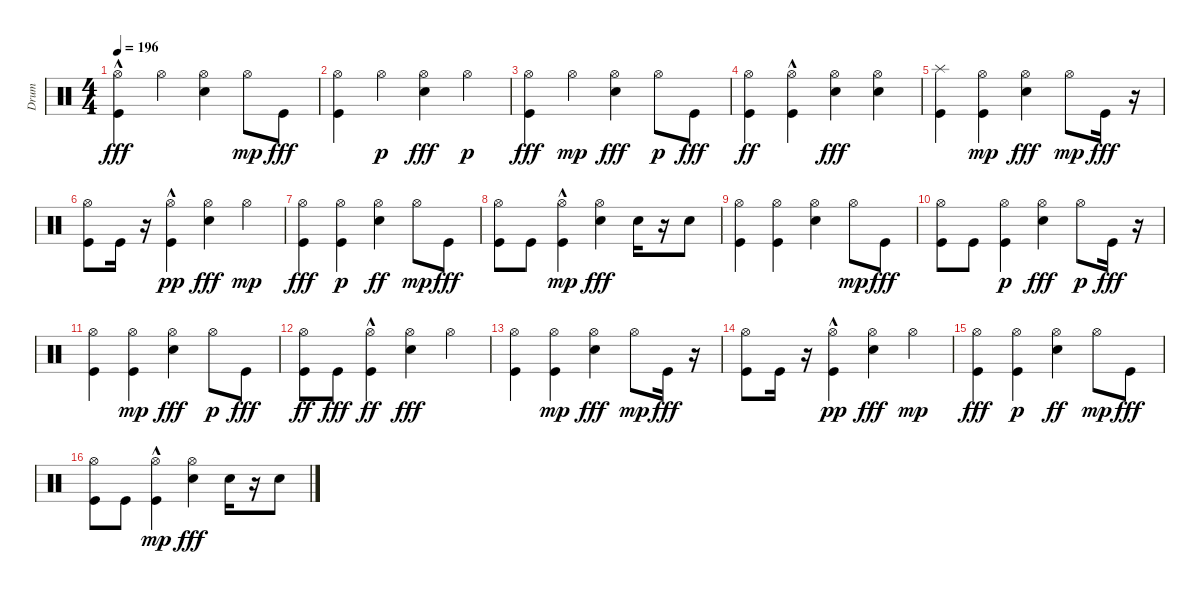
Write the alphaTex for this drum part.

\track ("Drum" "Drum") {instrument percussion}
\staff {score}
\articulation defaults
\ts (4 4)
\tempo 196
\clef neutral
\ks c
("Kick (hit)"{hac} "Hi-Hat (open)").4{dy fff} "Hi-Hat (open)".4 ("Hi-Hat (open)" "Snare (hit) 2").4 "Hi-Hat (open)".8{dy mp} "Kick (hit)".8{dy fff} |
("Kick (hit)" "Hi-Hat (open)").4 "Hi-Hat (open)".4{dy p} ("Snare (hit) 2" "Hi-Hat (open)").4{dy fff} "Hi-Hat (open)".4{dy p} |
("Kick (hit)" "Hi-Hat (open)").4{dy fff} "Hi-Hat (open)".4{dy mp} ("Hi-Hat (open)" "Snare (hit) 2").4{dy fff} "Hi-Hat (open)".8{dy p} "Kick (hit)".8{dy fff} |
("Kick (hit)" "Hi-Hat (open)").4{dy ff} ("Kick (hit)"{hac} "Hi-Hat (open)").4 ("Hi-Hat (open)" "Snare (hit) 2").4{dy fff} ("Metronome (bell)" "Hi-Hat (open)").4 |
("Splash (hit)" "Kick (hit)").4 ("Kick (hit)" "Hi-Hat (open)").4{dy mp} ("Hi-Hat (open)" "Snare (hit) 2").4{dy fff} "Hi-Hat (open)".8{dy mp} "Kick (hit)".16{dy fff} r.16 |
("Kick (hit)" "Hi-Hat (open)").8 "Kick (hit)".16 r.16 ("Kick (hit)"{hac} "Hi-Hat (open)").4{dy pp} ("Hi-Hat (open)" "Snare (hit) 2").4{dy fff} "Hi-Hat (open)".4{dy mp} |
("Kick (hit)" "Hi-Hat (open)").4{dy fff} ("Kick (hit)" "Hi-Hat (open)").4{dy p} ("Snare (hit) 2" "Hi-Hat (open)").4{dy ff} "Hi-Hat (open)".8{dy mp} "Kick (hit)".8{dy fff} |
("Kick (hit)" "Hi-Hat (open)").8 "Kick (hit)".8 ("Kick (hit)"{hac} "Hi-Hat (open)").4{dy mp} ("Hi-Hat (open)" "Snare (hit) 2").4{dy fff} "Snare (hit) 2".16 r.16 "Snare (hit) 2".8 |
("Kick (hit)" "Hi-Hat (open)").4 ("Kick (hit)" "Hi-Hat (open)").4 ("Hi-Hat (open)" "Snare (hit) 2").4 "Hi-Hat (open)".8{dy mp} "Kick (hit)".8{dy fff} |
("Kick (hit)" "Hi-Hat (open)").8 "Kick (hit)".8 ("Kick (hit)" "Hi-Hat (open)").4{dy p} ("Snare (hit) 2" "Hi-Hat (open)").4{dy fff} "Hi-Hat (open)".8{dy p} "Kick (hit)".16{dy fff} r.16 |
("Kick (hit)" "Hi-Hat (open)").4 ("Kick (hit)" "Hi-Hat (open)").4{dy mp} ("Hi-Hat (open)" "Snare (hit) 2").4{dy fff} "Hi-Hat (open)".8{dy p} "Kick (hit)".8{dy fff} |
("Kick (hit)" "Hi-Hat (open)").8{dy ff} "Kick (hit)".8{dy fff} ("Kick (hit)"{hac} "Hi-Hat (open)").4{dy ff} ("Hi-Hat (open)" "Snare (hit) 2").4{dy fff} "Hi-Hat (open)".4 |
("Kick (hit)" "Hi-Hat (open)").4 ("Kick (hit)" "Hi-Hat (open)").4{dy mp} ("Hi-Hat (open)" "Snare (hit) 2").4{dy fff} "Hi-Hat (open)".8{dy mp} "Kick (hit)".16{dy fff} r.16 |
("Kick (hit)" "Hi-Hat (open)").8 "Kick (hit)".16 r.16 ("Kick (hit)"{hac} "Hi-Hat (open)").4{dy pp} ("Hi-Hat (open)" "Snare (hit) 2").4{dy fff} "Hi-Hat (open)".4{dy mp} |
("Kick (hit)" "Hi-Hat (open)").4{dy fff} ("Kick (hit)" "Hi-Hat (open)").4{dy p} ("Snare (hit) 2" "Hi-Hat (open)").4{dy ff} "Hi-Hat (open)".8{dy mp} "Kick (hit)".8{dy fff} |
("Kick (hit)" "Hi-Hat (open)").8 "Kick (hit)".8 ("Kick (hit)"{hac} "Hi-Hat (open)").4{dy mp} ("Hi-Hat (open)" "Snare (hit) 2").4{dy fff} "Snare (hit) 2".16 r.16 "Snare (hit) 2".8
